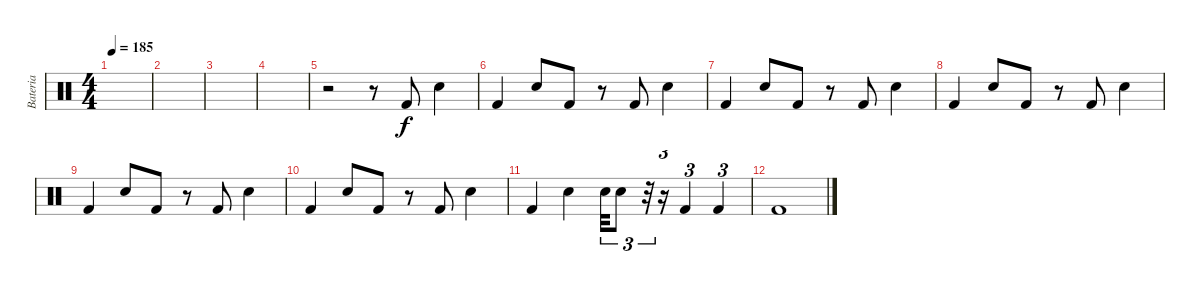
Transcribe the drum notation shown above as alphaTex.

\track ("Bateria" "Bateria") {instrument percussion}
\staff {score}
\articulation defaults
\ts (4 4)
\tempo 185
\clef neutral
\ks c
|
|
|
|
r.2 r.8 "Kick (hit) 2".8 "Snare (hit) 2".4 |
"Kick (hit) 2".4 "Snare (hit) 2".8 "Kick (hit) 2".8 r.8 "Kick (hit) 2".8 "Snare (hit) 2".4 |
"Kick (hit) 2".4 "Snare (hit) 2".8 "Kick (hit) 2".8 r.8 "Kick (hit) 2".8 "Snare (hit) 2".4 |
"Kick (hit) 2".4 "Snare (hit) 2".8 "Kick (hit) 2".8 r.8 "Kick (hit) 2".8 "Snare (hit) 2".4 |
"Kick (hit) 2".4 "Snare (hit) 2".8 "Kick (hit) 2".8 r.8 "Kick (hit) 2".8 "Snare (hit) 2".4 |
"Kick (hit) 2".4 "Snare (hit) 2".8 "Kick (hit) 2".8 r.8 "Kick (hit) 2".8 "Snare (hit) 2".4 |
"Kick (hit) 2".4 "Snare (hit) 2".4 "Snare (hit) 2".32{tu (3 2)} "Snare (hit) 2".8{tu (3 2)} r.32{tu (3 2)} r.16{tu (3 2)} "Kick (hit) 2".4{tu (3 2)} "Kick (hit) 2".4{tu (3 2)} |
"Kick (hit) 2".1
